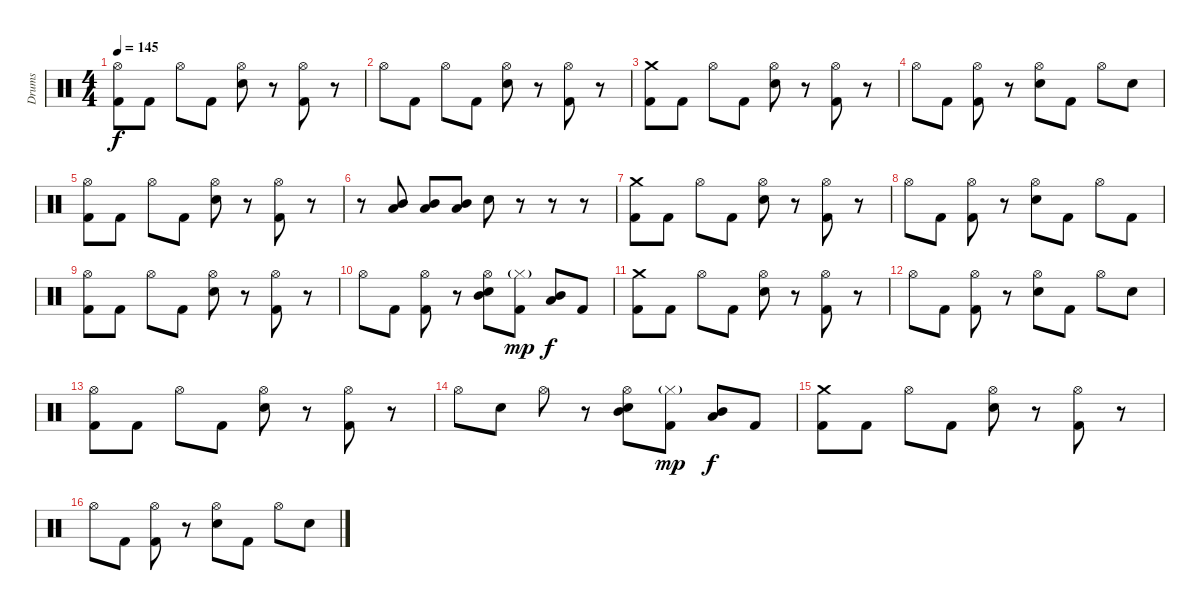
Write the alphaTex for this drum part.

\track ("Drums" "Drums") {instrument percussion}
\staff {score}
\articulation defaults
\ts (4 4)
\tempo 145
\clef neutral
\ks c
("Hi-Hat (open)" "Kick (hit) 2").8{dy f} "Kick (hit) 2".8 "Hi-Hat (open)".8 "Kick (hit) 2".8 ("Hi-Hat (open)" "Electric Snare (hit)").8 r.8 ("Hi-Hat (open)" "Kick (hit) 2").8 r.8 |
"Hi-Hat (open)".8 "Kick (hit) 2".8 "Hi-Hat (open)".8 "Kick (hit) 2".8 ("Hi-Hat (open)" "Electric Snare (hit)").8 r.8 ("Hi-Hat (open)" "Kick (hit) 2").8 r.8 |
("Crash medium (hit)" "Kick (hit) 2").8 "Kick (hit) 2".8 "Hi-Hat (open)".8 "Kick (hit) 2".8 ("Hi-Hat (open)" "Electric Snare (hit)").8 r.8 ("Hi-Hat (open)" "Kick (hit) 2").8 r.8 |
"Hi-Hat (open)".8 "Kick (hit) 2".8 ("Hi-Hat (open)" "Kick (hit) 2").8 r.8 ("Hi-Hat (open)" "Electric Snare (hit)").8 "Kick (hit) 2".8 "Hi-Hat (open)".8 "Electric Snare (hit)".8 |
("Hi-Hat (open)" "Kick (hit) 2").8 "Kick (hit) 2".8 "Hi-Hat (open)".8 "Kick (hit) 2".8 ("Hi-Hat (open)" "Electric Snare (hit)").8 r.8 ("Hi-Hat (open)" "Kick (hit) 2").8 r.8 |
r.8 ("Mid Tom (hit)" "Low Tom (hit)").8 ("Mid Tom (hit)" "Low Tom (hit)").8 ("Mid Tom (hit)" "Low Tom (hit)").8 "Electric Snare (hit)".8 r.8 r.8 r.8 |
("Crash medium (hit)" "Kick (hit) 2").8 "Kick (hit) 2".8 "Hi-Hat (open)".8 "Kick (hit) 2".8 ("Hi-Hat (open)" "Electric Snare (hit)").8 r.8 ("Hi-Hat (open)" "Kick (hit) 2").8 r.8 |
"Hi-Hat (open)".8 "Kick (hit) 2".8 ("Hi-Hat (open)" "Kick (hit) 2").8 r.8 ("Hi-Hat (open)" "Electric Snare (hit)").8 "Kick (hit) 2".8 "Hi-Hat (open)".8 "Kick (hit) 2".8 |
("Hi-Hat (open)" "Kick (hit) 2").8 "Kick (hit) 2".8 "Hi-Hat (open)".8 "Kick (hit) 2".8 ("Hi-Hat (open)" "Electric Snare (hit)").8 r.8 ("Hi-Hat (open)" "Kick (hit) 2").8 r.8 |
"Hi-Hat (open)".8 "Kick (hit) 2".8 ("Hi-Hat (open)" "Kick (hit) 2").8 r.8 ("Hi-Hat (open)" "Electric Snare (hit)" "Mid Tom (hit)").8 ("Hi-Hat (closed)"{g} "Kick (hit) 2").8{dy mp} ("Mid Tom (hit)" "Low Tom (hit)").8{dy f} "Kick (hit) 2".8 |
("Crash medium (hit)" "Kick (hit) 2").8 "Kick (hit) 2".8 "Hi-Hat (open)".8 "Kick (hit) 2".8 ("Hi-Hat (open)" "Electric Snare (hit)").8 r.8 ("Hi-Hat (open)" "Kick (hit) 2").8 r.8 |
"Hi-Hat (open)".8 "Kick (hit) 2".8 ("Hi-Hat (open)" "Kick (hit) 2").8 r.8 ("Hi-Hat (open)" "Electric Snare (hit)").8 "Kick (hit) 2".8 "Hi-Hat (open)".8 "Electric Snare (hit)".8 |
("Hi-Hat (open)" "Kick (hit) 2").8 "Kick (hit) 2".8 "Hi-Hat (open)".8 "Kick (hit) 2".8 ("Hi-Hat (open)" "Electric Snare (hit)").8 r.8 ("Hi-Hat (open)" "Kick (hit) 2").8 r.8 |
"Hi-Hat (open)".8 "Electric Snare (hit)".8 "Hi-Hat (open)".8 r.8 ("Hi-Hat (open)" "Electric Snare (hit)" "Mid Tom (hit)").8 ("Hi-Hat (closed)"{g} "Kick (hit) 2").8{dy mp} ("Mid Tom (hit)" "Low Tom (hit)").8{dy f} "Kick (hit) 2".8 |
("Crash medium (hit)" "Kick (hit) 2").8 "Kick (hit) 2".8 "Hi-Hat (open)".8 "Kick (hit) 2".8 ("Hi-Hat (open)" "Electric Snare (hit)").8 r.8 ("Hi-Hat (open)" "Kick (hit) 2").8 r.8 |
"Hi-Hat (open)".8 "Kick (hit) 2".8 ("Hi-Hat (open)" "Kick (hit) 2").8 r.8 ("Hi-Hat (open)" "Electric Snare (hit)").8 "Kick (hit) 2".8 "Hi-Hat (open)".8 "Electric Snare (hit)".8
